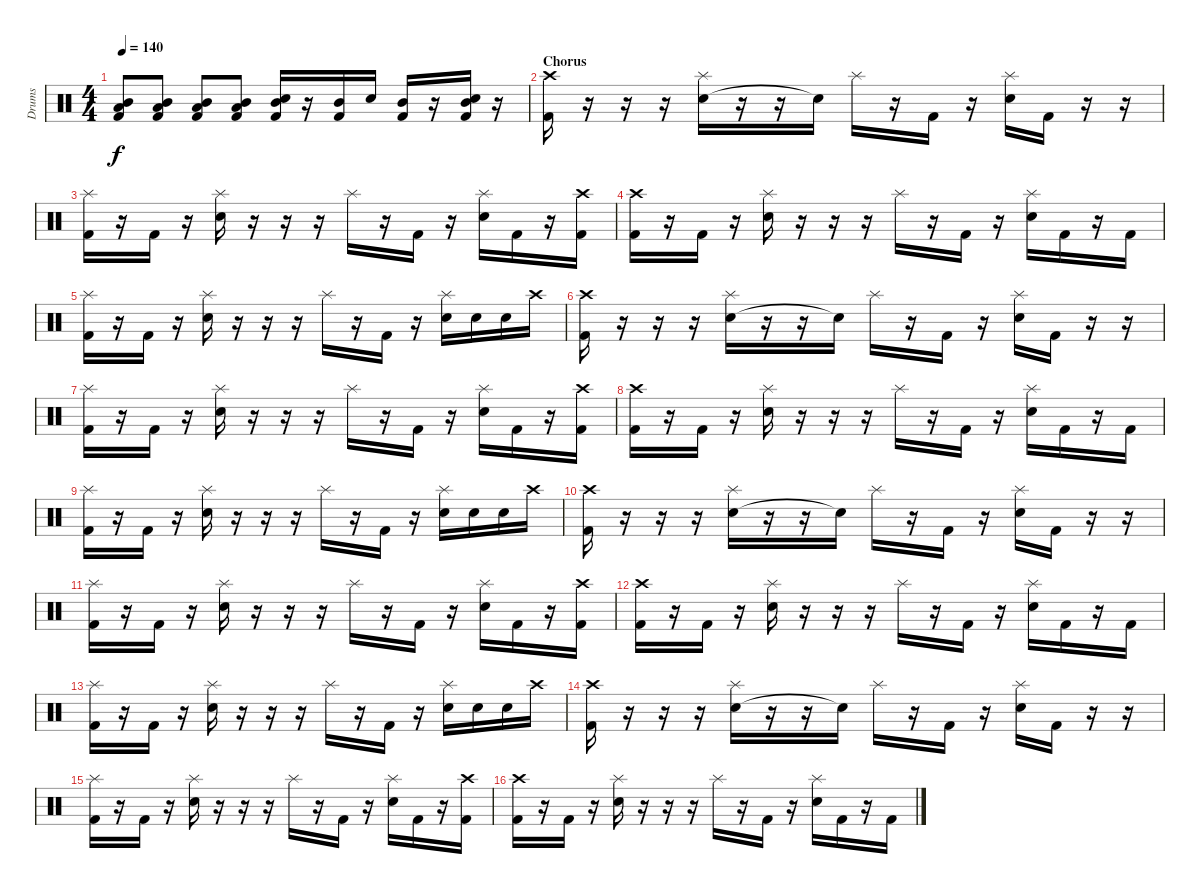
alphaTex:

\track ("Drums" "Drums") {instrument percussion}
\staff {score}
\articulation defaults
\ts (4 4)
\tempo 140
\clef neutral
\ks c
("Kick (hit) 2" "Mid Tom (hit)" "Low Tom (hit)").8{dy f} ("Kick (hit) 2" "Mid Tom (hit)" "Low Tom (hit)").8 ("Kick (hit) 2" "Mid Tom (hit)" "Low Tom (hit)").8 ("Kick (hit) 2" "Mid Tom (hit)" "Low Tom (hit)").8 ("Kick (hit) 2" "Snare (hit) 2" "Mid Tom (hit)").16 r.16 ("Kick (hit) 2" "Mid Tom (hit)").16 "Snare (hit) 2".16 ("Kick (hit) 2" "Mid Tom (hit)").16 r.16 ("Kick (hit) 2" "Snare (hit) 2" "Mid Tom (hit)").16 r.16 |
\section ("" "Chorus")
("Kick (hit) 2" "Crash high (hit)").16{volume 13} r.16 r.16 r.16 ("Snare (hit) 2" "Splash (hit)").16 r.16 r.16 "Snare (hit)"{t}.16 "Splash (hit)".16 r.16 "Kick (hit) 2".16 r.16 ("Snare (hit) 2" "Splash (hit)").16 "Kick (hit) 2".16 r.16 r.16 |
("Kick (hit) 2" "Splash (hit)").16 r.16 "Kick (hit) 2".16 r.16 ("Snare (hit) 2" "Splash (hit)").16 r.16 r.16 r.16 "Splash (hit)".16 r.16 "Kick (hit) 2".16 r.16 ("Snare (hit) 2" "Splash (hit)").16 "Kick (hit) 2".16 r.16 ("Kick (hit) 2" "Crash high (hit)").16 |
("Kick (hit) 2" "Crash high (hit)").16 r.16 "Kick (hit) 2".16 r.16 ("Snare (hit) 2" "Splash (hit)").16 r.16 r.16 r.16 "Splash (hit)".16 r.16 "Kick (hit) 2".16 r.16 ("Snare (hit) 2" "Splash (hit)").16 "Kick (hit) 2".16 r.16 "Kick (hit) 2".16 |
("Kick (hit) 2" "Splash (hit)").16 r.16 "Kick (hit) 2".16 r.16 ("Snare (hit) 2" "Splash (hit)").16 r.16 r.16 r.16 "Splash (hit)".16 r.16 "Kick (hit) 2".16 r.16 ("Snare (hit) 2" "Splash (hit)").16 "Snare (hit) 2".16 "Snare (hit) 2".16 "Crash high (hit)".16 |
("Kick (hit) 2" "Crash high (hit)").16 r.16 r.16 r.16 ("Snare (hit) 2" "Splash (hit)").16 r.16 r.16 "Snare (hit)"{t}.16 "Splash (hit)".16 r.16 "Kick (hit) 2".16 r.16 ("Snare (hit) 2" "Splash (hit)").16 "Kick (hit) 2".16 r.16 r.16 |
("Kick (hit) 2" "Splash (hit)").16 r.16 "Kick (hit) 2".16 r.16 ("Snare (hit) 2" "Splash (hit)").16 r.16 r.16 r.16 "Splash (hit)".16 r.16 "Kick (hit) 2".16 r.16 ("Snare (hit) 2" "Splash (hit)").16 "Kick (hit) 2".16 r.16 ("Kick (hit) 2" "Crash high (hit)").16 |
("Kick (hit) 2" "Crash high (hit)").16 r.16 "Kick (hit) 2".16 r.16 ("Snare (hit) 2" "Splash (hit)").16 r.16 r.16 r.16 "Splash (hit)".16 r.16 "Kick (hit) 2".16 r.16 ("Snare (hit) 2" "Splash (hit)").16 "Kick (hit) 2".16 r.16 "Kick (hit) 2".16 |
("Kick (hit) 2" "Splash (hit)").16 r.16 "Kick (hit) 2".16 r.16 ("Snare (hit) 2" "Splash (hit)").16 r.16 r.16 r.16 "Splash (hit)".16 r.16 "Kick (hit) 2".16 r.16 ("Snare (hit) 2" "Splash (hit)").16 "Snare (hit) 2".16 "Snare (hit) 2".16 "Crash high (hit)".16 |
("Kick (hit) 2" "Crash high (hit)").16 r.16 r.16 r.16 ("Snare (hit) 2" "Splash (hit)").16 r.16 r.16 "Snare (hit)"{t}.16 "Splash (hit)".16 r.16 "Kick (hit) 2".16 r.16 ("Snare (hit) 2" "Splash (hit)").16 "Kick (hit) 2".16 r.16 r.16 |
("Kick (hit) 2" "Splash (hit)").16 r.16 "Kick (hit) 2".16 r.16 ("Snare (hit) 2" "Splash (hit)").16 r.16 r.16 r.16 "Splash (hit)".16 r.16 "Kick (hit) 2".16 r.16 ("Snare (hit) 2" "Splash (hit)").16 "Kick (hit) 2".16 r.16 ("Kick (hit) 2" "Crash high (hit)").16 |
("Kick (hit) 2" "Crash high (hit)").16 r.16 "Kick (hit) 2".16 r.16 ("Snare (hit) 2" "Splash (hit)").16 r.16 r.16 r.16 "Splash (hit)".16 r.16 "Kick (hit) 2".16 r.16 ("Snare (hit) 2" "Splash (hit)").16 "Kick (hit) 2".16 r.16 "Kick (hit) 2".16 |
("Kick (hit) 2" "Splash (hit)").16 r.16 "Kick (hit) 2".16 r.16 ("Snare (hit) 2" "Splash (hit)").16 r.16 r.16 r.16 "Splash (hit)".16 r.16 "Kick (hit) 2".16 r.16 ("Snare (hit) 2" "Splash (hit)").16 "Snare (hit) 2".16 "Snare (hit) 2".16 "Crash high (hit)".16 |
("Kick (hit) 2" "Crash high (hit)").16{volume 13} r.16 r.16 r.16 ("Snare (hit) 2" "Splash (hit)").16 r.16 r.16 "Snare (hit)"{t}.16 "Splash (hit)".16 r.16 "Kick (hit) 2".16 r.16 ("Snare (hit) 2" "Splash (hit)").16 "Kick (hit) 2".16 r.16 r.16 |
("Kick (hit) 2" "Splash (hit)").16 r.16 "Kick (hit) 2".16 r.16 ("Snare (hit) 2" "Splash (hit)").16 r.16 r.16 r.16 "Splash (hit)".16 r.16 "Kick (hit) 2".16 r.16 ("Snare (hit) 2" "Splash (hit)").16 "Kick (hit) 2".16 r.16 ("Kick (hit) 2" "Crash high (hit)").16 |
("Kick (hit) 2" "Crash high (hit)").16 r.16 "Kick (hit) 2".16 r.16 ("Snare (hit) 2" "Splash (hit)").16 r.16 r.16 r.16 "Splash (hit)".16 r.16 "Kick (hit) 2".16 r.16 ("Snare (hit) 2" "Splash (hit)").16 "Kick (hit) 2".16 r.16 "Kick (hit) 2".16
